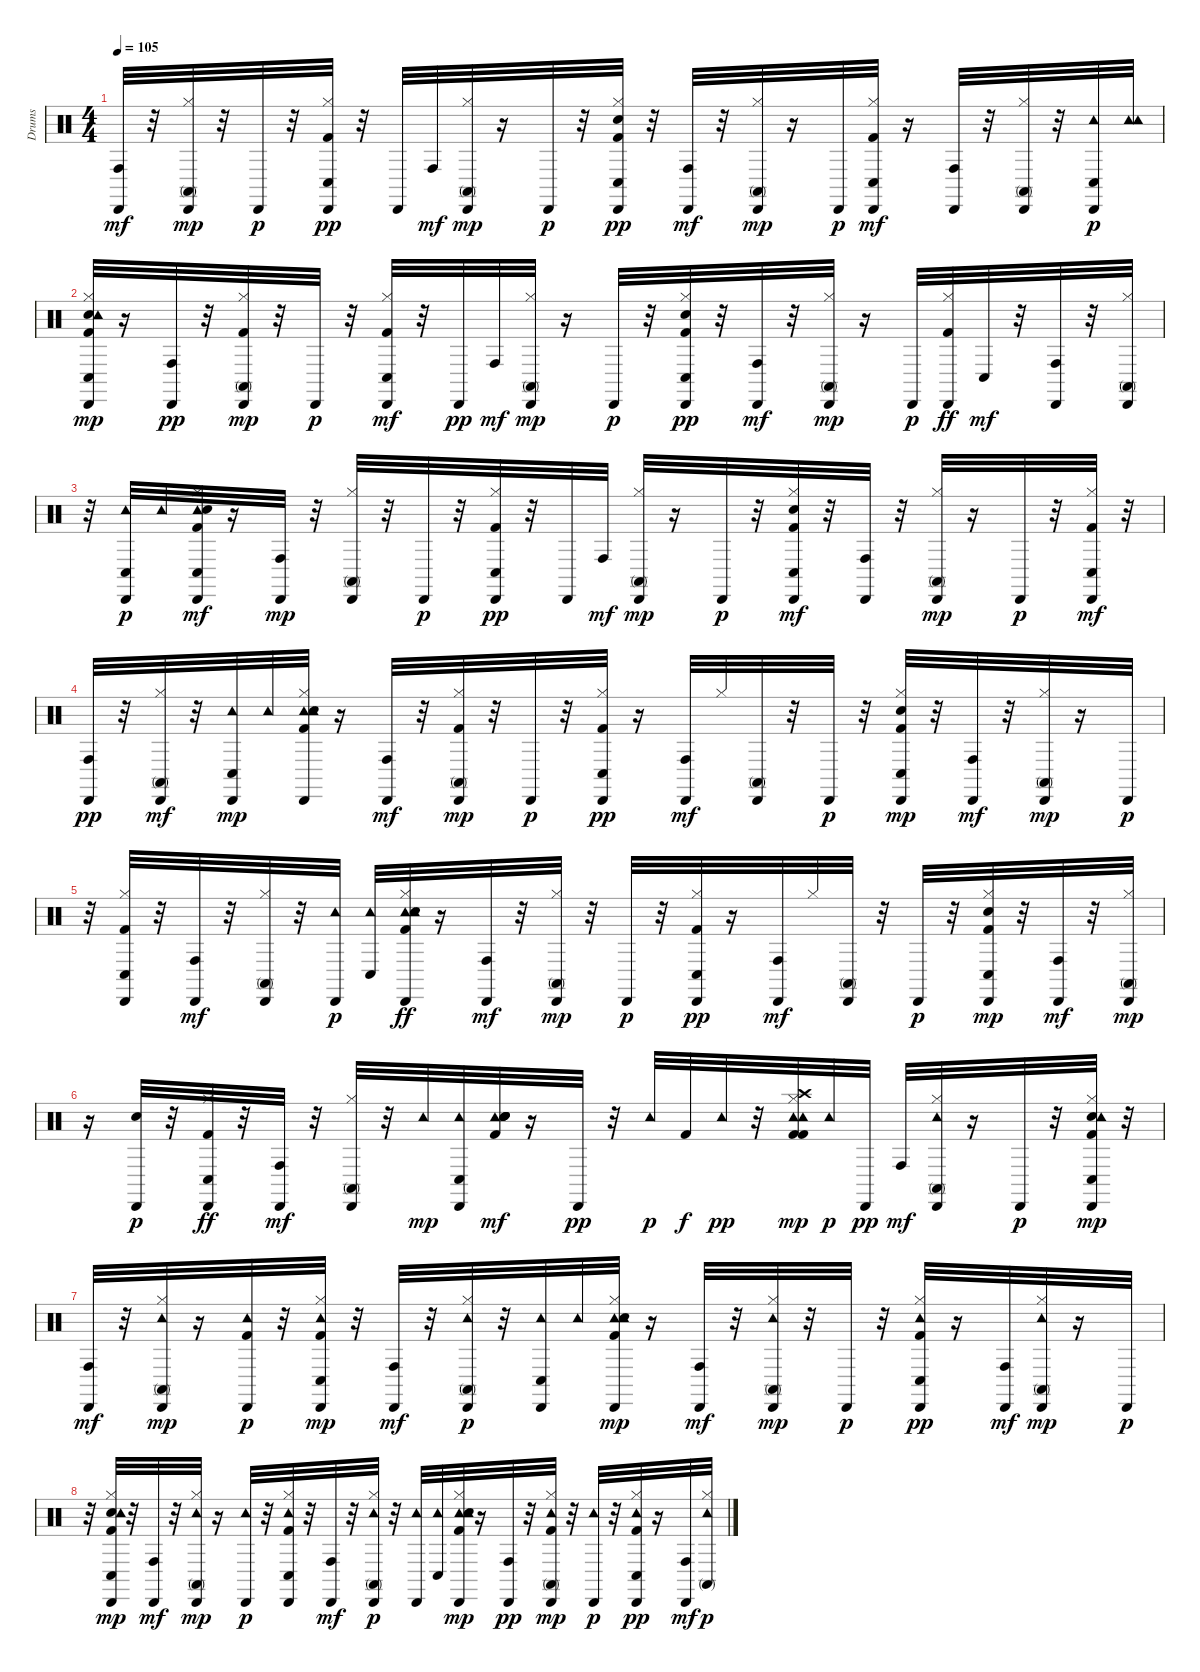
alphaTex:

\track ("Drums" "Drums") {instrument percussion}
\staff {score}
\articulation defaults
\ts (4 4)
\tempo 105
\clef neutral
\ks c
("Cabasa (hit)" "Conga high (hit)").32{dy mf} r.32 ("Conga high (mute)" "Hi-Hat (closed)" "Cabasa (hit)").32{dy mp} r.32 "Cabasa (hit)".32{dy p} r.32 ("Hi-Hat (closed)" "Kick (hit) 2" "Conga low (hit)" "Cabasa (hit)").32{dy pp} r.32 "Cabasa (hit)".32 "Conga high (hit)".32{dy mf} ("Hi-Hat (closed)" "Conga high (mute)" "Cabasa (hit)").32{dy mp} r.16 "Cabasa (hit)".32{dy p} r.32 ("Conga low (hit)" "Hi-Hat (closed)" "Snare (hit) 2" "Kick (hit) 2" "Cabasa (hit)").32{dy pp} r.32 ("Cabasa (hit)" "Conga high (hit)").32{dy mf} r.32 ("Conga high (mute)" "Hi-Hat (closed)" "Cabasa (hit)").32{dy mp} r.16 "Cabasa (hit)".32{dy p} ("Hi-Hat (closed)" "Kick (hit) 2" "Cabasa (hit)" "Conga low (hit)").32{dy mf} r.16 ("Cabasa (hit)" "Conga high (hit)").32 r.32 ("Cabasa (hit)" "Hi-Hat (closed)" "Conga high (mute)").32 r.32 ("Tambourine (hit)" "Cabasa (hit)" "Conga low (hit)").32{dy p} ("Tambourine (hit)" "Tambourine (hit)").32 |
("Cabasa (hit)" "Hi-Hat (closed)" "Snare (hit) 2" "Kick (hit) 2" "Conga low (hit)" "Tambourine (hit)").32{dy mp} r.16 ("Conga high (hit)" "Cabasa (hit)").32{dy pp} r.32 ("Conga high (mute)" "Hi-Hat (closed)" "Kick (hit) 2" "Cabasa (hit)").32{dy mp} r.32 "Cabasa (hit)".32{dy p} r.32 ("Hi-Hat (closed)" "Kick (hit) 2" "Cabasa (hit)" "Conga low (hit)").32{dy mf} r.32 "Cabasa (hit)".32{dy pp} "Conga high (hit)".32{dy mf} ("Hi-Hat (closed)" "Conga high (mute)" "Cabasa (hit)").32{dy mp} r.16 "Cabasa (hit)".32{dy p} r.32 ("Conga low (hit)" "Hi-Hat (closed)" "Snare (hit) 2" "Kick (hit) 2" "Cabasa (hit)").32{dy pp} r.32 ("Cabasa (hit)" "Conga high (hit)").32{dy mf} r.32 ("Hi-Hat (closed)" "Cabasa (hit)" "Conga high (mute)").32{dy mp} r.16 "Cabasa (hit)".32{dy p} ("Cabasa (hit)" "Hi-Hat (closed)" "Kick (hit) 2").32{dy ff} "Conga low (hit)".32{dy mf} r.32 ("Cabasa (hit)" "Conga high (hit)").32 r.32 ("Cabasa (hit)" "Hi-Hat (closed)" "Conga high (mute)").32 |
r.32 ("Tambourine (hit)" "Cabasa (hit)" "Conga low (hit)").32{dy p} "Tambourine (hit)".32 ("Tambourine (hit)" "Hi-Hat (closed)" "Snare (hit) 2" "Kick (hit) 2" "Cabasa (hit)" "Conga low (hit)").32{dy mf} r.16 ("Cabasa (hit)" "Conga high (hit)").32{dy mp} r.32 ("Hi-Hat (closed)" "Conga high (mute)" "Cabasa (hit)").32 r.32 "Cabasa (hit)".32{dy p} r.32 ("Conga low (hit)" "Hi-Hat (closed)" "Kick (hit) 2" "Cabasa (hit)").32{dy pp} r.32 "Cabasa (hit)".32 "Conga high (hit)".32{dy mf} ("Conga high (mute)" "Hi-Hat (closed)" "Cabasa (hit)").32{dy mp} r.16 "Cabasa (hit)".32{dy p} r.32 ("Hi-Hat (closed)" "Snare (hit) 2" "Kick (hit) 2" "Cabasa (hit)" "Conga low (hit)").32{dy mf} r.32 ("Cabasa (hit)" "Conga high (hit)").32 r.32 ("Hi-Hat (closed)" "Cabasa (hit)" "Conga high (mute)").32{dy mp} r.16 "Cabasa (hit)".32{dy p} r.32 ("Hi-Hat (closed)" "Kick (hit) 2" "Cabasa (hit)" "Conga low (hit)").32{dy mf} r.32 |
("Conga high (hit)" "Cabasa (hit)").32{dy pp} r.32 ("Conga high (mute)" "Cabasa (hit)" "Hi-Hat (closed)").32{dy mf} r.32 ("Tambourine (hit)" "Cabasa (hit)" "Conga low (hit)").32{dy mp} "Tambourine (hit)".32 ("Tambourine (hit)" "Cabasa (hit)" "Hi-Hat (closed)" "Snare (hit) 2" "Kick (hit) 2" "Tambourine (hit)").32 r.16 ("Cabasa (hit)" "Conga high (hit)").32{dy mf} r.32 ("Hi-Hat (closed)" "Kick (hit) 2" "Conga high (mute)" "Cabasa (hit)").32{dy mp} r.32 "Cabasa (hit)".32{dy p} r.32 ("Conga low (hit)" "Hi-Hat (closed)" "Kick (hit) 2" "Cabasa (hit)").32{dy pp} r.16 ("Cabasa (hit)" "Conga high (hit)").32{dy mf} "Hi-Hat (closed)".32 ("Cabasa (hit)" "Conga high (mute)").32 r.32 "Cabasa (hit)".32{dy p} r.32 ("Hi-Hat (closed)" "Snare (hit) 2" "Kick (hit) 2" "Cabasa (hit)" "Conga low (hit)").32{dy mp} r.32 ("Cabasa (hit)" "Conga high (hit)").32{dy mf} r.32 ("Hi-Hat (closed)" "Conga high (mute)" "Cabasa (hit)").32{dy mp} r.16 "Cabasa (hit)".32{dy p} |
r.32 ("Conga low (hit)" "Hi-Hat (closed)" "Kick (hit) 2" "Cabasa (hit)").32 r.32 ("Cabasa (hit)" "Conga high (hit)").32{dy mf} r.32 ("Cabasa (hit)" "Hi-Hat (closed)" "Conga high (mute)").32 r.32 ("Tambourine (hit)" "Cabasa (hit)").32{dy p} ("Conga low (hit)" "Tambourine (hit)").32 ("Tambourine (hit)" "Cabasa (hit)" "Tambourine (hit)" "Hi-Hat (closed)" "Snare (hit) 2" "Kick (hit) 2").32{dy ff} r.16 ("Cabasa (hit)" "Conga high (hit)").32{dy mf} r.32 ("Conga high (mute)" "Hi-Hat (closed)" "Cabasa (hit)").32{dy mp} r.32 "Cabasa (hit)".32{dy p} r.32 ("Hi-Hat (closed)" "Kick (hit) 2" "Conga low (hit)" "Cabasa (hit)").32{dy pp} r.16 ("Cabasa (hit)" "Conga high (hit)").32{dy mf} "Hi-Hat (closed)".32 ("Cabasa (hit)" "Conga high (mute)").32 r.32 "Cabasa (hit)".32{dy p} r.32 ("Hi-Hat (closed)" "Snare (hit) 2" "Kick (hit) 2" "Cabasa (hit)" "Conga low (hit)").32{dy mp} r.32 ("Cabasa (hit)" "Conga high (hit)").32{dy mf} r.32 ("Conga high (mute)" "Hi-Hat (closed)" "Cabasa (hit)").32{dy mp} |
r.16 ("Hand Clap (hit)" "Cabasa (hit)").32{dy p} r.32 ("Cabasa (hit)" "Conga low (hit)" "Hi-Hat (closed)" "Kick (hit) 2").32{dy ff} r.32 ("Cabasa (hit)" "Conga high (hit)").32{dy mf} r.32 ("Cabasa (hit)" "Hi-Hat (closed)" "Conga high (mute)").32 r.32 "Tambourine (hit)".32{dy mp} ("Cabasa (hit)" "Conga low (hit)" "Tambourine (hit)").32 ("Tambourine (hit)" "Kick (hit) 2" "Hand Clap (hit)" "Snare (hit) 2" "Snare (hit) 2" "Hand Clap (hit)").32{dy mf} r.16 "Cabasa (hit)".32{dy pp} r.32 "Tambourine (hit)".32{dy p} "Kick (hit) 2".32{dy f} "Tambourine (hit)".32{dy pp} r.32 ("Tambourine (hit)" "Kick (hit) 2" "Kick (hit) 2" "Hi-Hat (closed)" "Crash high (hit)" "Tambourine (hit)").32{dy mp} "Tambourine (hit)".32{dy p} "Cabasa (hit)".32{dy pp} "Conga high (hit)".32{dy mf} ("Hi-Hat (closed)" "Tambourine (hit)" "Cabasa (hit)" "Conga high (mute)").32 r.16 "Cabasa (hit)".32{dy p} r.32 ("Kick (hit) 2" "Snare (hit) 2" "Hi-Hat (closed)" "Conga low (hit)" "Cabasa (hit)" "Tambourine (hit)").32{dy mp} r.32 |
("Cabasa (hit)" "Conga high (hit)").32{dy mf} r.32 ("Hi-Hat (closed)" "Tambourine (hit)" "Conga high (mute)" "Cabasa (hit)").32{dy mp} r.16 ("Tambourine (hit)" "Kick (hit) 2" "Cabasa (hit)").32{dy p} r.32 ("Kick (hit) 2" "Hi-Hat (closed)" "Cabasa (hit)" "Conga low (hit)" "Tambourine (hit)").32{dy mp} r.32 ("Cabasa (hit)" "Conga high (hit)").32{dy mf} r.32 ("Hi-Hat (closed)" "Cabasa (hit)" "Tambourine (hit)" "Conga high (mute)").32{dy p} r.32 ("Tambourine (hit)" "Cabasa (hit)" "Conga low (hit)").32 "Tambourine (hit)".32 ("Tambourine (hit)" "Cabasa (hit)" "Kick (hit) 2" "Snare (hit) 2" "Hi-Hat (closed)" "Tambourine (hit)").32{dy mp} r.16 ("Cabasa (hit)" "Conga high (hit)").32{dy mf} r.32 ("Hi-Hat (closed)" "Conga high (mute)" "Tambourine (hit)" "Cabasa (hit)").32{dy mp} r.32 "Cabasa (hit)".32{dy p} r.32 ("Conga low (hit)" "Tambourine (hit)" "Kick (hit) 2" "Hi-Hat (closed)" "Cabasa (hit)").32{dy pp} r.16 ("Cabasa (hit)" "Conga high (hit)").32{dy mf} ("Hi-Hat (closed)" "Tambourine (hit)" "Conga high (mute)" "Cabasa (hit)").32{dy mp} r.16 "Cabasa (hit)".32{dy p} |
r.32 ("Kick (hit) 2" "Snare (hit) 2" "Hi-Hat (closed)" "Conga low (hit)" "Cabasa (hit)" "Tambourine (hit)").32{dy mp} r.32 ("Cabasa (hit)" "Conga high (hit)").32{dy mf} r.32 ("Conga high (mute)" "Hi-Hat (closed)" "Tambourine (hit)" "Cabasa (hit)").32{dy mp} r.16 ("Tambourine (hit)" "Cabasa (hit)").32{dy p} r.32 ("Conga low (hit)" "Kick (hit) 2" "Hi-Hat (closed)" "Tambourine (hit)" "Cabasa (hit)").32 r.32 ("Cabasa (hit)" "Conga high (hit)").32{dy mf} r.32 ("Hi-Hat (closed)" "Cabasa (hit)" "Conga high (mute)" "Tambourine (hit)").32{dy p} r.32 ("Tambourine (hit)" "Cabasa (hit)").32 ("Conga low (hit)" "Tambourine (hit)").32 ("Tambourine (hit)" "Cabasa (hit)" "Kick (hit) 2" "Snare (hit) 2" "Hi-Hat (closed)" "Tambourine (hit)").32{dy mp} r.16 ("Conga high (hit)" "Cabasa (hit)").32{dy pp} r.32 ("Conga high (mute)" "Kick (hit) 2" "Hi-Hat (closed)" "Tambourine (hit)" "Cabasa (hit)").32{dy mp} r.32 ("Tambourine (hit)" "Cabasa (hit)").32{dy p} r.32 ("Kick (hit) 2" "Hi-Hat (closed)" "Conga low (hit)" "Tambourine (hit)" "Cabasa (hit)").32{dy pp} r.16 ("Cabasa (hit)" "Conga high (hit)").32{dy mf} ("Hi-Hat (closed)" "Tambourine (hit)" "Conga high (mute)").32{dy p}
